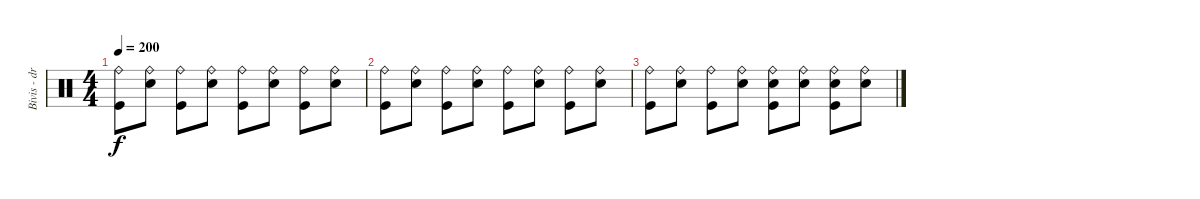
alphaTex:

\track ("Bivis - drums" "Bivis - dr") {instrument percussion}
\staff {score}
\articulation defaults
\ts (4 4)
\tempo 200
\clef neutral
\ks c
("Ride (bell)" "Kick (hit)").8{dy f} ("Ride (bell)" "Electric Snare (hit)").8 ("Ride (bell)" "Kick (hit)").8 ("Ride (bell)" "Electric Snare (hit)").8 ("Ride (bell)" "Kick (hit)").8 ("Ride (bell)" "Electric Snare (hit)").8 ("Ride (bell)" "Kick (hit)").8 ("Ride (bell)" "Electric Snare (hit)").8 |
("Ride (bell)" "Kick (hit)").8 ("Ride (bell)" "Electric Snare (hit)").8 ("Ride (bell)" "Kick (hit)").8 ("Ride (bell)" "Electric Snare (hit)").8 ("Ride (bell)" "Kick (hit)").8 ("Ride (bell)" "Electric Snare (hit)").8 ("Ride (bell)" "Kick (hit)").8 ("Ride (bell)" "Electric Snare (hit)").8 |
("Ride (bell)" "Kick (hit)").8 ("Ride (bell)" "Electric Snare (hit)").8 ("Ride (bell)" "Kick (hit)").8 ("Ride (bell)" "Electric Snare (hit)").8 ("Ride (bell)" "Snare (hit) 2" "Kick (hit)").8 ("Ride (bell)" "Electric Snare (hit)").8 ("Ride (bell)" "Snare (hit) 2" "Kick (hit)").8 ("Ride (bell)" "Electric Snare (hit)").8
